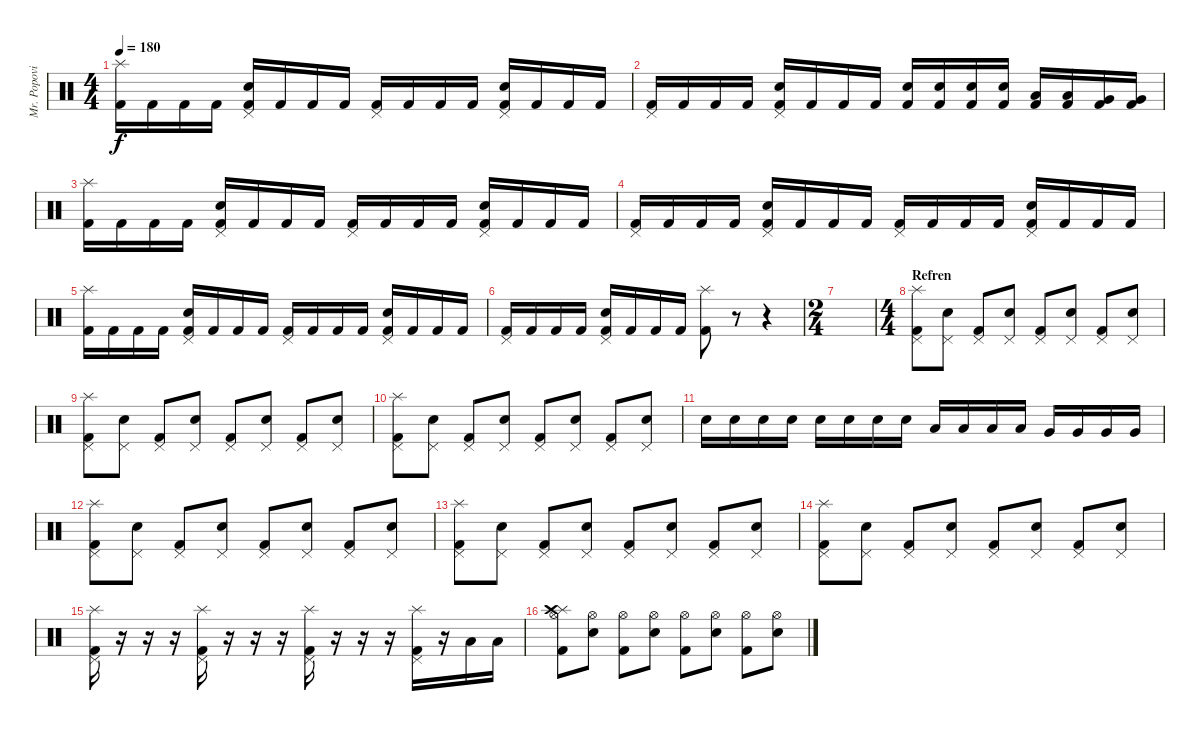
\track ("Mr. Popovic" "Mr. Popovi") {instrument percussion}
\staff {score}
\articulation defaults
\ts (4 4)
\tempo 180
\clef neutral
\ks c
("Splash (hit)" "Kick (hit) 2").16{dy f} "Kick (hit) 2".16 "Kick (hit) 2".16 "Kick (hit) 2".16 ("Pedal Hi-Hat (hit)" "Electric Snare (hit)" "Kick (hit) 2").16 "Kick (hit) 2".16 "Kick (hit) 2".16 "Kick (hit) 2".16 ("Pedal Hi-Hat (hit)" "Kick (hit) 2").16 "Kick (hit) 2".16 "Kick (hit) 2".16 "Kick (hit) 2".16 ("Pedal Hi-Hat (hit)" "Electric Snare (hit)" "Kick (hit) 2").16 "Kick (hit) 2".16 "Kick (hit) 2".16 "Kick (hit) 2".16 |
("Pedal Hi-Hat (hit)" "Kick (hit) 2").16 "Kick (hit) 2".16 "Kick (hit) 2".16 "Kick (hit) 2".16 ("Pedal Hi-Hat (hit)" "Electric Snare (hit)" "Kick (hit) 2").16 "Kick (hit) 2".16 "Kick (hit) 2".16 "Kick (hit) 2".16 ("Electric Snare (hit)" "Kick (hit) 2").16 ("Electric Snare (hit)" "Kick (hit) 2").16 ("Electric Snare (hit)" "Kick (hit) 2").16 ("Electric Snare (hit)" "Kick (hit) 2").16 ("Low Tom (hit)" "Kick (hit) 2").16 ("Low Tom (hit)" "Kick (hit) 2").16 ("Very Low Tom (hit)" "Kick (hit) 2").16 ("Very Low Tom (hit)" "Kick (hit) 2").16 |
("Splash (hit)" "Kick (hit) 2").16 "Kick (hit) 2".16 "Kick (hit) 2".16 "Kick (hit) 2".16 ("Pedal Hi-Hat (hit)" "Electric Snare (hit)" "Kick (hit) 2").16 "Kick (hit) 2".16 "Kick (hit) 2".16 "Kick (hit) 2".16 ("Pedal Hi-Hat (hit)" "Kick (hit) 2").16 "Kick (hit) 2".16 "Kick (hit) 2".16 "Kick (hit) 2".16 ("Pedal Hi-Hat (hit)" "Electric Snare (hit)" "Kick (hit) 2").16 "Kick (hit) 2".16 "Kick (hit) 2".16 "Kick (hit) 2".16 |
("Pedal Hi-Hat (hit)" "Kick (hit) 2").16 "Kick (hit) 2".16 "Kick (hit) 2".16 "Kick (hit) 2".16 ("Pedal Hi-Hat (hit)" "Electric Snare (hit)" "Kick (hit) 2").16 "Kick (hit) 2".16 "Kick (hit) 2".16 "Kick (hit) 2".16 ("Pedal Hi-Hat (hit)" "Kick (hit) 2").16 "Kick (hit) 2".16 "Kick (hit) 2".16 "Kick (hit) 2".16 ("Pedal Hi-Hat (hit)" "Electric Snare (hit)" "Kick (hit) 2").16 "Kick (hit) 2".16 "Kick (hit) 2".16 "Kick (hit) 2".16 |
("Splash (hit)" "Kick (hit) 2").16 "Kick (hit) 2".16 "Kick (hit) 2".16 "Kick (hit) 2".16 ("Pedal Hi-Hat (hit)" "Electric Snare (hit)" "Kick (hit) 2").16 "Kick (hit) 2".16 "Kick (hit) 2".16 "Kick (hit) 2".16 ("Pedal Hi-Hat (hit)" "Kick (hit) 2").16 "Kick (hit) 2".16 "Kick (hit) 2".16 "Kick (hit) 2".16 ("Pedal Hi-Hat (hit)" "Electric Snare (hit)" "Kick (hit) 2").16 "Kick (hit) 2".16 "Kick (hit) 2".16 "Kick (hit) 2".16 |
("Pedal Hi-Hat (hit)" "Kick (hit) 2").16 "Kick (hit) 2".16 "Kick (hit) 2".16 "Kick (hit) 2".16 ("Pedal Hi-Hat (hit)" "Electric Snare (hit)" "Kick (hit) 2").16 "Kick (hit) 2".16 "Kick (hit) 2".16 "Kick (hit) 2".16 ("Splash (hit)" "Kick (hit) 2").8 r.8 r.4 |
\ts (2 4)
|
\ts (4 4)
\section ("" "Refren")
("Splash (hit)" "Pedal Hi-Hat (hit)" "Kick (hit) 2").8 ("Pedal Hi-Hat (hit)" "Electric Snare (hit)").8 ("Pedal Hi-Hat (hit)" "Kick (hit) 2").8 ("Pedal Hi-Hat (hit)" "Electric Snare (hit)").8 ("Pedal Hi-Hat (hit)" "Kick (hit) 2").8 ("Pedal Hi-Hat (hit)" "Electric Snare (hit)").8 ("Pedal Hi-Hat (hit)" "Kick (hit) 2").8 ("Pedal Hi-Hat (hit)" "Electric Snare (hit)").8 |
("Splash (hit)" "Pedal Hi-Hat (hit)" "Kick (hit) 2").8 ("Pedal Hi-Hat (hit)" "Electric Snare (hit)").8 ("Pedal Hi-Hat (hit)" "Kick (hit) 2").8 ("Pedal Hi-Hat (hit)" "Electric Snare (hit)").8 ("Pedal Hi-Hat (hit)" "Kick (hit) 2").8 ("Pedal Hi-Hat (hit)" "Electric Snare (hit)").8 ("Pedal Hi-Hat (hit)" "Kick (hit) 2").8 ("Pedal Hi-Hat (hit)" "Electric Snare (hit)").8 |
("Splash (hit)" "Pedal Hi-Hat (hit)" "Kick (hit) 2").8 ("Pedal Hi-Hat (hit)" "Electric Snare (hit)").8 ("Pedal Hi-Hat (hit)" "Kick (hit) 2").8 ("Pedal Hi-Hat (hit)" "Electric Snare (hit)").8 ("Pedal Hi-Hat (hit)" "Kick (hit) 2").8 ("Pedal Hi-Hat (hit)" "Electric Snare (hit)").8 ("Pedal Hi-Hat (hit)" "Kick (hit) 2").8 ("Pedal Hi-Hat (hit)" "Electric Snare (hit)").8 |
"Electric Snare (hit)".16 "Electric Snare (hit)".16 "Electric Snare (hit)".16 "Electric Snare (hit)".16 "Electric Snare (hit)".16 "Electric Snare (hit)".16 "Electric Snare (hit)".16 "Electric Snare (hit)".16 "Low Tom (hit)".16 "Low Tom (hit)".16 "Low Tom (hit)".16 "Low Tom (hit)".16 "Very Low Tom (hit)".16 "Very Low Tom (hit)".16 "Very Low Tom (hit)".16 "Very Low Tom (hit)".16 |
("Splash (hit)" "Pedal Hi-Hat (hit)" "Kick (hit) 2").8 ("Pedal Hi-Hat (hit)" "Electric Snare (hit)").8 ("Pedal Hi-Hat (hit)" "Kick (hit) 2").8 ("Pedal Hi-Hat (hit)" "Electric Snare (hit)").8 ("Pedal Hi-Hat (hit)" "Kick (hit) 2").8 ("Pedal Hi-Hat (hit)" "Electric Snare (hit)").8 ("Pedal Hi-Hat (hit)" "Kick (hit) 2").8 ("Pedal Hi-Hat (hit)" "Electric Snare (hit)").8 |
("Splash (hit)" "Pedal Hi-Hat (hit)" "Kick (hit) 2").8 ("Pedal Hi-Hat (hit)" "Electric Snare (hit)").8 ("Pedal Hi-Hat (hit)" "Kick (hit) 2").8 ("Pedal Hi-Hat (hit)" "Electric Snare (hit)").8 ("Pedal Hi-Hat (hit)" "Kick (hit) 2").8 ("Pedal Hi-Hat (hit)" "Electric Snare (hit)").8 ("Pedal Hi-Hat (hit)" "Kick (hit) 2").8 ("Pedal Hi-Hat (hit)" "Electric Snare (hit)").8 |
("Splash (hit)" "Pedal Hi-Hat (hit)" "Kick (hit) 2").8 ("Pedal Hi-Hat (hit)" "Electric Snare (hit)").8 ("Pedal Hi-Hat (hit)" "Kick (hit) 2").8 ("Pedal Hi-Hat (hit)" "Electric Snare (hit)").8 ("Pedal Hi-Hat (hit)" "Kick (hit) 2").8 ("Pedal Hi-Hat (hit)" "Electric Snare (hit)").8 ("Pedal Hi-Hat (hit)" "Kick (hit) 2").8 ("Pedal Hi-Hat (hit)" "Electric Snare (hit)").8 |
("Splash (hit)" "Pedal Hi-Hat (hit)" "Kick (hit) 2").16 r.16 r.16 r.16 ("Splash (hit)" "Pedal Hi-Hat (hit)" "Kick (hit) 2").16 r.16 r.16 r.16 ("Splash (hit)" "Pedal Hi-Hat (hit)" "Kick (hit) 2").16 r.16 r.16 r.16 ("Splash (hit)" "Pedal Hi-Hat (hit)" "Kick (hit) 2").16 r.16 "Low Tom (hit)".16 "Low Tom (hit)".16 |
("Splash (hit)" "Crash high (hit)" "Hi-Hat (open)" "Kick (hit) 2").8 ("Hi-Hat (open)" "Electric Snare (hit)").8 ("Hi-Hat (open)" "Kick (hit) 2").8 ("Hi-Hat (open)" "Electric Snare (hit)").8 ("Hi-Hat (open)" "Kick (hit) 2").8 ("Hi-Hat (open)" "Electric Snare (hit)").8 ("Hi-Hat (open)" "Kick (hit) 2").8 ("Hi-Hat (open)" "Electric Snare (hit)").8
